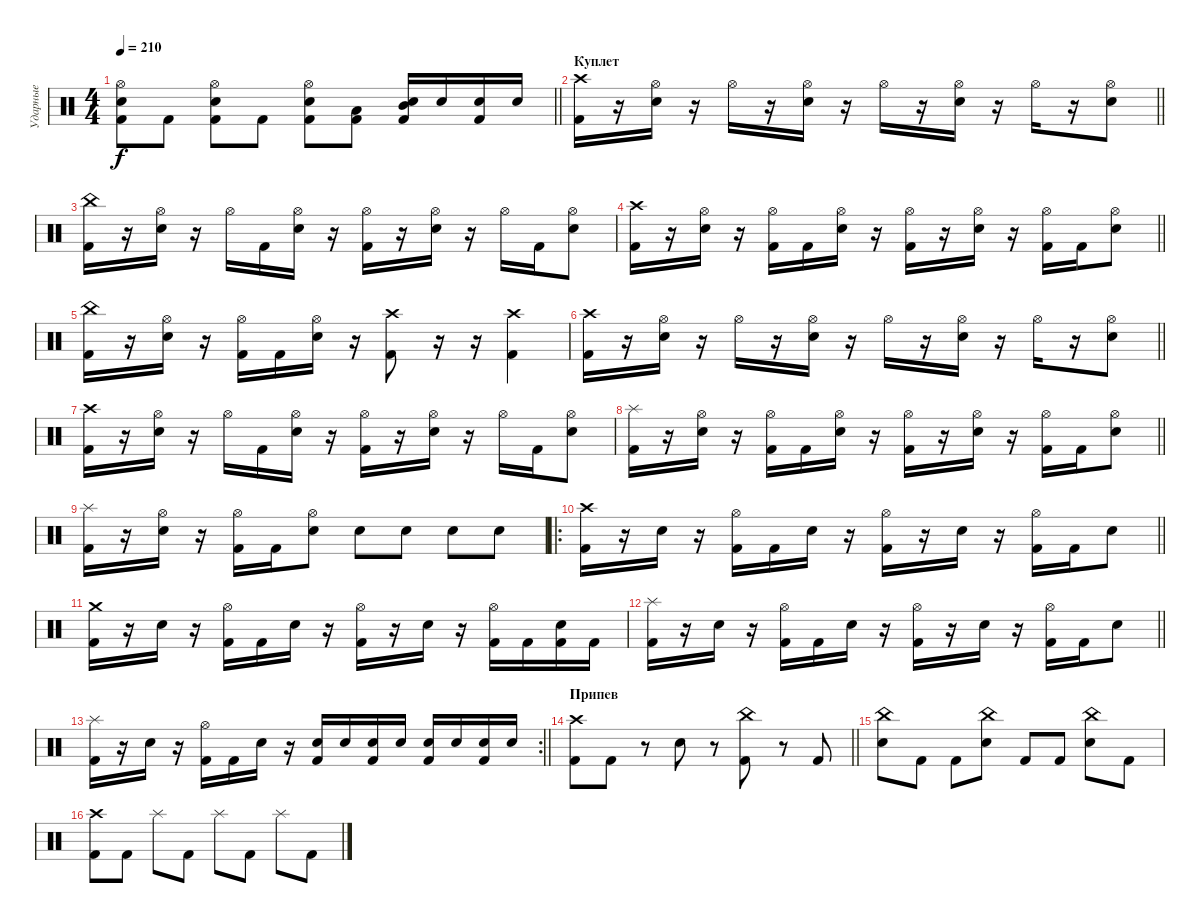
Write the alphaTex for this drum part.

\track ("Ударные" "Ударные") {mute instrument percussion}
\staff {score}
\articulation defaults
\ts (4 4)
\tempo 210
\clef neutral
\barLineRight lightlight
\ks c
("Hi-Hat (open)" "Electric Snare (hit)" "Kick (hit) 2").8{dy f volume 13} "Kick (hit) 2".8 ("Hi-Hat (open)" "Electric Snare (hit)" "Kick (hit) 2").8{volume 14} "Kick (hit) 2".8 ("Hi-Hat (open)" "Electric Snare (hit)" "Kick (hit) 2").8 ("Low Tom (hit)" "Kick (hit) 2").8 ("Mid Tom (hit)" "Electric Snare (hit)" "Kick (hit) 2").16 "Electric Snare (hit)".16 ("Electric Snare (hit)" "Kick (hit) 2").16 "Electric Snare (hit)".16 |
\section ("" "Куплет")
\barLineRight lightlight
("Crash high (hit)" "Kick (hit) 2").16 r.16 ("Hi-Hat (open)" "Electric Snare (hit)").16 r.16 "Hi-Hat (open)".16 r.16 ("Hi-Hat (open)" "Electric Snare (hit)").16 r.16 "Hi-Hat (open)".16 r.16 ("Hi-Hat (open)" "Electric Snare (hit)").16 r.16 "Hi-Hat (open)".16 r.16 ("Hi-Hat (open)" "Electric Snare (hit)").8 |
("China (hit)" "Kick (hit) 2").16 r.16 ("Hi-Hat (open)" "Electric Snare (hit)").16 r.16 "Hi-Hat (open)".16 "Kick (hit) 2".16 ("Hi-Hat (open)" "Electric Snare (hit)").16 r.16 ("Hi-Hat (open)" "Kick (hit) 2").16 r.16 ("Hi-Hat (open)" "Electric Snare (hit)").16 r.16 "Hi-Hat (open)".16 "Kick (hit) 2".16 ("Hi-Hat (open)" "Electric Snare (hit)").8 |
\barLineRight lightlight
("Crash high (hit)" "Kick (hit) 2").16 r.16 ("Hi-Hat (open)" "Electric Snare (hit)").16 r.16 ("Hi-Hat (open)" "Kick (hit) 2").16 "Kick (hit) 2".16 ("Hi-Hat (open)" "Electric Snare (hit)").16 r.16 ("Hi-Hat (open)" "Kick (hit) 2").16 r.16 ("Hi-Hat (open)" "Electric Snare (hit)").16 r.16 ("Hi-Hat (open)" "Kick (hit) 2").16 "Kick (hit) 2".16 ("Hi-Hat (open)" "Electric Snare (hit)").8 |
("China (hit)" "Kick (hit) 2").16 r.16 ("Hi-Hat (open)" "Electric Snare (hit)").16 r.16 ("Hi-Hat (open)" "Kick (hit) 2").16 "Kick (hit) 2".16 ("Hi-Hat (open)" "Electric Snare (hit)").16 r.16 ("Crash high (hit)" "Kick (hit) 2").8 r.16 r.16 ("Crash high (hit)"{pm} "Kick (hit) 2").4 |
\barLineRight lightlight
("Crash high (hit)" "Kick (hit) 2").16 r.16 ("Hi-Hat (open)" "Electric Snare (hit)").16 r.16 "Hi-Hat (open)".16 r.16 ("Hi-Hat (open)" "Electric Snare (hit)").16 r.16 "Hi-Hat (open)".16 r.16 ("Hi-Hat (open)" "Electric Snare (hit)").16 r.16 "Hi-Hat (open)".16 r.16 ("Hi-Hat (open)" "Electric Snare (hit)").8 |
("Crash high (hit)" "Kick (hit) 2").16 r.16 ("Hi-Hat (open)" "Electric Snare (hit)").16 r.16 "Hi-Hat (open)".16 "Kick (hit) 2".16 ("Hi-Hat (open)" "Electric Snare (hit)").16 r.16 ("Hi-Hat (open)" "Kick (hit) 2").16 r.16 ("Hi-Hat (open)" "Electric Snare (hit)").16 r.16 "Hi-Hat (open)".16 "Kick (hit) 2".16 ("Hi-Hat (open)" "Electric Snare (hit)").8 |
\barLineRight lightlight
("Splash (hit)" "Kick (hit) 2").16 r.16 ("Hi-Hat (open)" "Electric Snare (hit)").16 r.16 ("Hi-Hat (open)" "Kick (hit) 2").16 "Kick (hit) 2".16 ("Hi-Hat (open)" "Electric Snare (hit)").16 r.16 ("Hi-Hat (open)" "Kick (hit) 2").16 r.16 ("Hi-Hat (open)" "Electric Snare (hit)").16 r.16 ("Hi-Hat (open)" "Kick (hit) 2").16 "Kick (hit) 2".16 ("Hi-Hat (open)" "Electric Snare (hit)").8 |
("Splash (hit)" "Kick (hit) 2").16 r.16 ("Hi-Hat (open)" "Electric Snare (hit)").16 r.16 ("Hi-Hat (open)" "Kick (hit) 2").16 "Kick (hit) 2".16 ("Hi-Hat (open)" "Electric Snare (hit)").8 "Electric Snare (hit)".8 "Electric Snare (hit)".8 "Electric Snare (hit)".8 "Electric Snare (hit)".8 |
\ro
\barLineRight lightlight
("Crash high (hit)" "Kick (hit) 2").16 r.16 "Electric Snare (hit)".16 r.16 ("Hi-Hat (open)" "Kick (hit) 2").16 "Kick (hit) 2".16 "Electric Snare (hit)".16 r.16 ("Hi-Hat (open)" "Kick (hit) 2").16 r.16 "Electric Snare (hit)".16 r.16 ("Hi-Hat (open)" "Kick (hit) 2").16 "Kick (hit) 2".16 "Electric Snare (hit)".8 |
("Crash medium (hit)" "Kick (hit) 2").16 r.16 "Electric Snare (hit)".16 r.16 ("Hi-Hat (open)" "Kick (hit) 2").16 "Kick (hit) 2".16 "Electric Snare (hit)".16 r.16 ("Hi-Hat (open)" "Kick (hit) 2").16 r.16 "Electric Snare (hit)".16 r.16 ("Hi-Hat (open)" "Kick (hit) 2").16 "Kick (hit) 2".16 ("Electric Snare (hit)" "Kick (hit) 2").16 "Kick (hit) 2".16 |
\barLineRight lightlight
("Splash (hit)" "Kick (hit) 2").16 r.16 "Electric Snare (hit)".16 r.16 ("Hi-Hat (open)" "Kick (hit) 2").16 "Kick (hit) 2".16 "Electric Snare (hit)".16 r.16 ("Hi-Hat (open)" "Kick (hit) 2").16 r.16 "Electric Snare (hit)".16 r.16 ("Hi-Hat (open)" "Kick (hit) 2").16 "Kick (hit) 2".16 "Electric Snare (hit)".8 |
\rc 2
\barLineRight lightlight
("Splash (hit)" "Kick (hit) 2").16 r.16 "Electric Snare (hit)".16 r.16 ("Hi-Hat (open)" "Kick (hit) 2").16 "Kick (hit) 2".16 "Electric Snare (hit)".16 r.16 ("Electric Snare (hit)" "Kick (hit) 2").16 "Electric Snare (hit)".16 ("Electric Snare (hit)" "Kick (hit) 2").16 "Electric Snare (hit)".16 ("Electric Snare (hit)" "Kick (hit) 2").16 "Electric Snare (hit)".16 ("Electric Snare (hit)" "Kick (hit) 2").16 "Electric Snare (hit)".16 |
\section ("" "Припев")
\barLineRight lightlight
("Crash high (hit)" "Kick (hit) 2").8 "Kick (hit) 2".8 r.8 "Electric Snare (hit)".8 r.8 ("China (hit)" "Kick (hit) 2").8 r.8 "Kick (hit) 2".8 |
("China (hit)" "Electric Snare (hit)").8 "Kick (hit) 2".8 "Kick (hit) 2".8 ("China (hit)" "Electric Snare (hit)").8 "Kick (hit) 2".8 "Kick (hit) 2".8 ("China (hit)" "Electric Snare (hit)").8 "Kick (hit) 2".8 |
("Crash high (hit)" "Kick (hit) 2").8 "Kick (hit) 2".8 "Splash (hit)".8 "Kick (hit) 2".8 "Splash (hit)".8 "Kick (hit) 2".8 "Splash (hit)".8 "Kick (hit) 2".8
